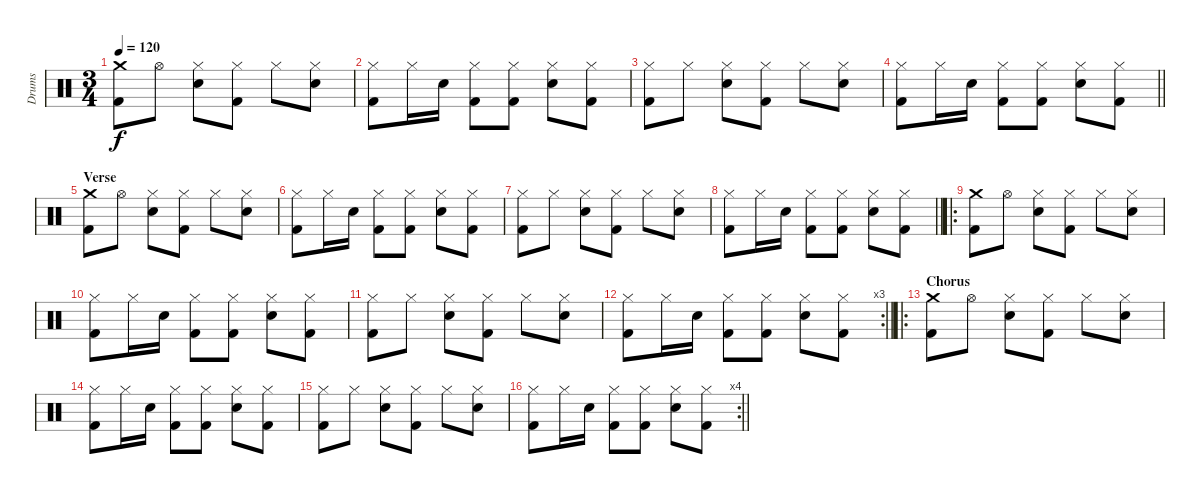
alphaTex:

\track ("Drums" "Drums") {instrument percussion}
\staff {score}
\articulation defaults
\ts (3 4)
\tempo 120
\clef neutral
\ks c
("Kick (hit) 2" "Crash medium (hit)").8{dy f} "Hi-Hat (open)".8 ("Electric Snare (hit)" "Hi-Hat (closed)").8 ("Kick (hit) 2" "Hi-Hat (closed)").8 "Hi-Hat (closed)".8 ("Electric Snare (hit)" "Hi-Hat (closed)").8 |
("Kick (hit) 2" "Hi-Hat (closed)").8 "Hi-Hat (closed)".16 "Electric Snare (hit)".16 ("Kick (hit) 2" "Hi-Hat (closed)").8 ("Kick (hit) 2" "Hi-Hat (closed)").8 ("Electric Snare (hit)" "Hi-Hat (closed)").8 ("Kick (hit) 2" "Hi-Hat (closed)").8 |
("Kick (hit) 2" "Hi-Hat (closed)").8 "Hi-Hat (closed)".8 ("Electric Snare (hit)" "Hi-Hat (closed)").8 ("Kick (hit) 2" "Hi-Hat (closed)").8 "Hi-Hat (closed)".8 ("Electric Snare (hit)" "Hi-Hat (closed)").8 |
\barLineRight lightlight
("Kick (hit) 2" "Hi-Hat (closed)").8 "Hi-Hat (closed)".16 "Electric Snare (hit)".16 ("Kick (hit) 2" "Hi-Hat (closed)").8 ("Kick (hit) 2" "Hi-Hat (closed)").8 ("Electric Snare (hit)" "Hi-Hat (closed)").8 ("Kick (hit) 2" "Hi-Hat (closed)").8 |
\section ("" "Verse ")
("Kick (hit) 2" "Crash medium (hit)").8 "Hi-Hat (open)".8 ("Electric Snare (hit)" "Hi-Hat (closed)").8 ("Kick (hit) 2" "Hi-Hat (closed)").8 "Hi-Hat (closed)".8 ("Electric Snare (hit)" "Hi-Hat (closed)").8 |
("Kick (hit) 2" "Hi-Hat (closed)").8 "Hi-Hat (closed)".16 "Electric Snare (hit)".16 ("Kick (hit) 2" "Hi-Hat (closed)").8 ("Kick (hit) 2" "Hi-Hat (closed)").8 ("Electric Snare (hit)" "Hi-Hat (closed)").8 ("Kick (hit) 2" "Hi-Hat (closed)").8 |
("Kick (hit) 2" "Hi-Hat (closed)").8 "Hi-Hat (closed)".8 ("Electric Snare (hit)" "Hi-Hat (closed)").8 ("Kick (hit) 2" "Hi-Hat (closed)").8 "Hi-Hat (closed)".8 ("Electric Snare (hit)" "Hi-Hat (closed)").8 |
\barLineRight lightlight
("Kick (hit) 2" "Hi-Hat (closed)").8 "Hi-Hat (closed)".16 "Electric Snare (hit)".16 ("Kick (hit) 2" "Hi-Hat (closed)").8 ("Kick (hit) 2" "Hi-Hat (closed)").8 ("Electric Snare (hit)" "Hi-Hat (closed)").8 ("Kick (hit) 2" "Hi-Hat (closed)").8 |
\ro
("Kick (hit) 2" "Crash medium (hit)").8 "Hi-Hat (open)".8 ("Electric Snare (hit)" "Hi-Hat (closed)").8 ("Kick (hit) 2" "Hi-Hat (closed)").8 "Hi-Hat (closed)".8 ("Electric Snare (hit)" "Hi-Hat (closed)").8 |
("Kick (hit) 2" "Hi-Hat (closed)").8 "Hi-Hat (closed)".16 "Electric Snare (hit)".16 ("Kick (hit) 2" "Hi-Hat (closed)").8 ("Kick (hit) 2" "Hi-Hat (closed)").8 ("Electric Snare (hit)" "Hi-Hat (closed)").8 ("Kick (hit) 2" "Hi-Hat (closed)").8 |
("Kick (hit) 2" "Hi-Hat (closed)").8 "Hi-Hat (closed)".8 ("Electric Snare (hit)" "Hi-Hat (closed)").8 ("Kick (hit) 2" "Hi-Hat (closed)").8 "Hi-Hat (closed)".8 ("Electric Snare (hit)" "Hi-Hat (closed)").8 |
\rc 3
\barLineRight lightlight
("Kick (hit) 2" "Hi-Hat (closed)").8 "Hi-Hat (closed)".16 "Electric Snare (hit)".16 ("Kick (hit) 2" "Hi-Hat (closed)").8 ("Kick (hit) 2" "Hi-Hat (closed)").8 ("Electric Snare (hit)" "Hi-Hat (closed)").8 ("Kick (hit) 2" "Hi-Hat (closed)").8 |
\ro
\section ("" "Chorus")
("Kick (hit) 2" "Crash medium (hit)").8 "Hi-Hat (open)".8 ("Electric Snare (hit)" "Hi-Hat (closed)").8 ("Kick (hit) 2" "Hi-Hat (closed)").8 "Hi-Hat (closed)".8 ("Electric Snare (hit)" "Hi-Hat (closed)").8 |
("Kick (hit) 2" "Hi-Hat (closed)").8 "Hi-Hat (closed)".16 "Electric Snare (hit)".16 ("Kick (hit) 2" "Hi-Hat (closed)").8 ("Kick (hit) 2" "Hi-Hat (closed)").8 ("Electric Snare (hit)" "Hi-Hat (closed)").8 ("Kick (hit) 2" "Hi-Hat (closed)").8 |
("Kick (hit) 2" "Hi-Hat (closed)").8 "Hi-Hat (closed)".8 ("Electric Snare (hit)" "Hi-Hat (closed)").8 ("Kick (hit) 2" "Hi-Hat (closed)").8 "Hi-Hat (closed)".8 ("Electric Snare (hit)" "Hi-Hat (closed)").8 |
\rc 4
\barLineRight lightlight
("Kick (hit) 2" "Hi-Hat (closed)").8 "Hi-Hat (closed)".16 "Electric Snare (hit)".16 ("Kick (hit) 2" "Hi-Hat (closed)").8 ("Kick (hit) 2" "Hi-Hat (closed)").8 ("Electric Snare (hit)" "Hi-Hat (closed)").8 ("Kick (hit) 2" "Hi-Hat (closed)").8
